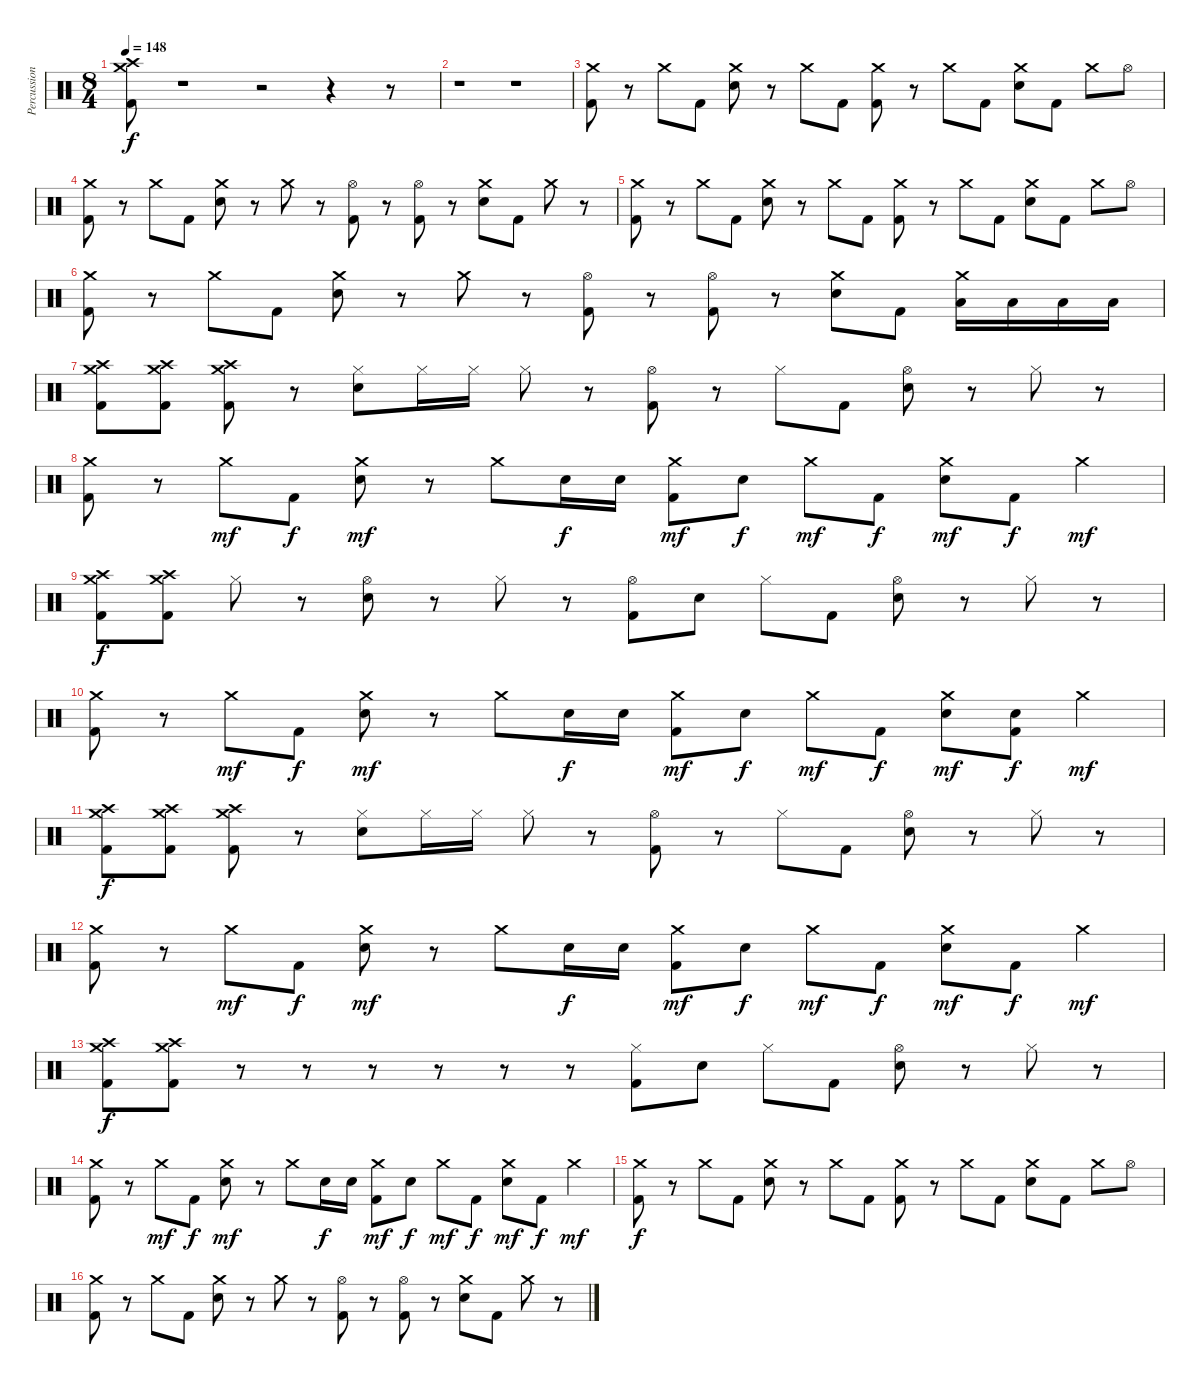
\track ("Percussion" "Percussion") {instrument percussion}
\staff {score}
\articulation defaults
\ts (8 4)
\tempo 148
\clef neutral
\ks c
("Crash medium (hit)" "Crash high (hit)" "Kick (hit) 2").8{dy f} r.1 r.2 r.4 r.8 |
r.1 r.1 |
("Crash medium (hit)" "Kick (hit) 2").8 r.8 "Crash medium (hit)".8 "Kick (hit) 2".8 ("Crash medium (hit)" "Electric Snare (hit)").8 r.8 "Crash medium (hit)".8 "Kick (hit) 2".8 ("Crash medium (hit)" "Kick (hit) 2").8 r.8 "Crash medium (hit)".8 "Kick (hit) 2".8 ("Crash medium (hit)" "Electric Snare (hit)").8 "Kick (hit) 2".8 "Crash medium (hit)".8 "Hi-Hat (open)".8 |
("Crash medium (hit)" "Kick (hit) 2").8 r.8 "Crash medium (hit)".8 "Kick (hit) 2".8 ("Crash medium (hit)" "Electric Snare (hit)").8 r.8 "Crash medium (hit)".8 r.8 ("Hi-Hat (open)" "Kick (hit) 2").8 r.8 ("Hi-Hat (open)" "Kick (hit) 2").8 r.8 ("Crash medium (hit)" "Electric Snare (hit)").8 "Kick (hit) 2".8 "Crash medium (hit)".8 r.8 |
("Crash medium (hit)" "Kick (hit) 2").8 r.8 "Crash medium (hit)".8 "Kick (hit) 2".8 ("Crash medium (hit)" "Electric Snare (hit)").8 r.8 "Crash medium (hit)".8 "Kick (hit) 2".8 ("Crash medium (hit)" "Kick (hit) 2").8 r.8 "Crash medium (hit)".8 "Kick (hit) 2".8 ("Crash medium (hit)" "Electric Snare (hit)").8 "Kick (hit) 2".8 "Crash medium (hit)".8 "Hi-Hat (open)".8 |
("Crash medium (hit)" "Kick (hit) 2").8 r.8 "Crash medium (hit)".8 "Kick (hit) 2".8 ("Crash medium (hit)" "Electric Snare (hit)").8 r.8 "Crash medium (hit)".8 r.8 ("Hi-Hat (open)" "Kick (hit) 2").8 r.8 ("Hi-Hat (open)" "Kick (hit) 2").8 r.8 ("Crash medium (hit)" "Electric Snare (hit)").8 "Kick (hit) 2".8 ("Crash medium (hit)" "Low Floor Tom (hit)").16 "Low Floor Tom (hit)".16 "Low Floor Tom (hit)".16 "Low Floor Tom (hit)".16 |
("Crash high (hit)" "Crash medium (hit)" "Kick (hit) 2").8 ("Crash high (hit)" "Crash medium (hit)" "Kick (hit) 2").8 ("Crash high (hit)" "Crash medium (hit)" "Kick (hit) 2").8 r.8 ("Electric Snare (hit)" "Hi-Hat (closed)").8 "Hi-Hat (closed)".16 "Hi-Hat (closed)".16 "Hi-Hat (closed)".8 r.8 ("Hi-Hat (open)" "Kick (hit) 2").8 r.8 "Hi-Hat (closed)".8 "Kick (hit) 2".8 ("Electric Snare (hit)" "Hi-Hat (open)").8 r.8 "Hi-Hat (closed)".8 r.8 |
("Crash medium (hit)" "Kick (hit) 2").8 r.8 "Crash medium (hit)".8{dy mf} "Kick (hit) 2".8{dy f} ("Electric Snare (hit)" "Crash medium (hit)").8{dy mf} r.8 "Crash medium (hit)".8 "Electric Snare (hit)".16{dy f} "Electric Snare (hit)".16 ("Crash medium (hit)" "Kick (hit) 2").8{dy mf} "Electric Snare (hit)".8{dy f} "Crash medium (hit)".8{dy mf} "Kick (hit) 2".8{dy f} ("Electric Snare (hit)" "Crash medium (hit)").8{dy mf} "Kick (hit) 2".8{dy f} "Crash medium (hit)".4{dy mf} |
("Crash high (hit)" "Crash medium (hit)" "Kick (hit) 2").8{dy f} ("Crash high (hit)" "Crash medium (hit)" "Kick (hit) 2").8 "Hi-Hat (closed)".8 r.8 ("Electric Snare (hit)" "Hi-Hat (open)").8 r.8 "Hi-Hat (closed)".8 r.8 ("Hi-Hat (open)" "Kick (hit) 2").8 "Electric Snare (hit)".8 "Hi-Hat (closed)".8 "Kick (hit) 2".8 ("Electric Snare (hit)" "Hi-Hat (open)").8 r.8 "Hi-Hat (closed)".8 r.8 |
("Crash medium (hit)" "Kick (hit) 2").8 r.8 "Crash medium (hit)".8{dy mf} "Kick (hit) 2".8{dy f} ("Electric Snare (hit)" "Crash medium (hit)").8{dy mf} r.8 "Crash medium (hit)".8 "Electric Snare (hit)".16{dy f} "Electric Snare (hit)".16 ("Crash medium (hit)" "Kick (hit) 2").8{dy mf} "Electric Snare (hit)".8{dy f} "Crash medium (hit)".8{dy mf} "Kick (hit) 2".8{dy f} ("Electric Snare (hit)" "Crash medium (hit)").8{dy mf} ("Electric Snare (hit)" "Kick (hit) 2").8{dy f} "Crash medium (hit)".4{dy mf} |
("Crash high (hit)" "Crash medium (hit)" "Kick (hit) 2").8{dy f} ("Crash high (hit)" "Crash medium (hit)" "Kick (hit) 2").8 ("Crash high (hit)" "Crash medium (hit)" "Kick (hit) 2").8 r.8 ("Electric Snare (hit)" "Hi-Hat (closed)").8 "Hi-Hat (closed)".16 "Hi-Hat (closed)".16 "Hi-Hat (closed)".8 r.8 ("Hi-Hat (open)" "Kick (hit) 2").8 r.8 "Hi-Hat (closed)".8 "Kick (hit) 2".8 ("Electric Snare (hit)" "Hi-Hat (open)").8 r.8 "Hi-Hat (closed)".8 r.8 |
("Crash medium (hit)" "Kick (hit) 2").8 r.8 "Crash medium (hit)".8{dy mf} "Kick (hit) 2".8{dy f} ("Electric Snare (hit)" "Crash medium (hit)").8{dy mf} r.8 "Crash medium (hit)".8 "Electric Snare (hit)".16{dy f} "Electric Snare (hit)".16 ("Crash medium (hit)" "Kick (hit) 2").8{dy mf} "Electric Snare (hit)".8{dy f} "Crash medium (hit)".8{dy mf} "Kick (hit) 2".8{dy f} ("Electric Snare (hit)" "Crash medium (hit)").8{dy mf} "Kick (hit) 2".8{dy f} "Crash medium (hit)".4{dy mf} |
("Crash high (hit)" "Crash medium (hit)" "Kick (hit) 2").8{dy f} ("Crash high (hit)" "Crash medium (hit)" "Kick (hit) 2").8 r.8 r.8 r.8 r.8 r.8 r.8 ("Hi-Hat (closed)" "Kick (hit) 2").8 "Electric Snare (hit)".8 "Hi-Hat (closed)".8 "Kick (hit) 2".8 ("Electric Snare (hit)" "Hi-Hat (open)").8 r.8 "Hi-Hat (closed)".8 r.8 |
("Crash medium (hit)" "Kick (hit) 2").8 r.8 "Crash medium (hit)".8{dy mf} "Kick (hit) 2".8{dy f} ("Electric Snare (hit)" "Crash medium (hit)").8{dy mf} r.8 "Crash medium (hit)".8 "Electric Snare (hit)".16{dy f} "Electric Snare (hit)".16 ("Crash medium (hit)" "Kick (hit) 2").8{dy mf} "Electric Snare (hit)".8{dy f} "Crash medium (hit)".8{dy mf} "Kick (hit) 2".8{dy f} ("Electric Snare (hit)" "Crash medium (hit)").8{dy mf} "Kick (hit) 2".8{dy f} "Crash medium (hit)".4{dy mf} |
("Crash medium (hit)" "Kick (hit) 2").8{dy f} r.8 "Crash medium (hit)".8 "Kick (hit) 2".8 ("Crash medium (hit)" "Electric Snare (hit)").8 r.8 "Crash medium (hit)".8 "Kick (hit) 2".8 ("Crash medium (hit)" "Kick (hit) 2").8 r.8 "Crash medium (hit)".8 "Kick (hit) 2".8 ("Crash medium (hit)" "Electric Snare (hit)").8 "Kick (hit) 2".8 "Crash medium (hit)".8 "Hi-Hat (open)".8 |
("Crash medium (hit)" "Kick (hit) 2").8 r.8 "Crash medium (hit)".8 "Kick (hit) 2".8 ("Crash medium (hit)" "Electric Snare (hit)").8 r.8 "Crash medium (hit)".8 r.8 ("Hi-Hat (open)" "Kick (hit) 2").8 r.8 ("Hi-Hat (open)" "Kick (hit) 2").8 r.8 ("Crash medium (hit)" "Electric Snare (hit)").8 "Kick (hit) 2".8 "Crash medium (hit)".8 r.8
